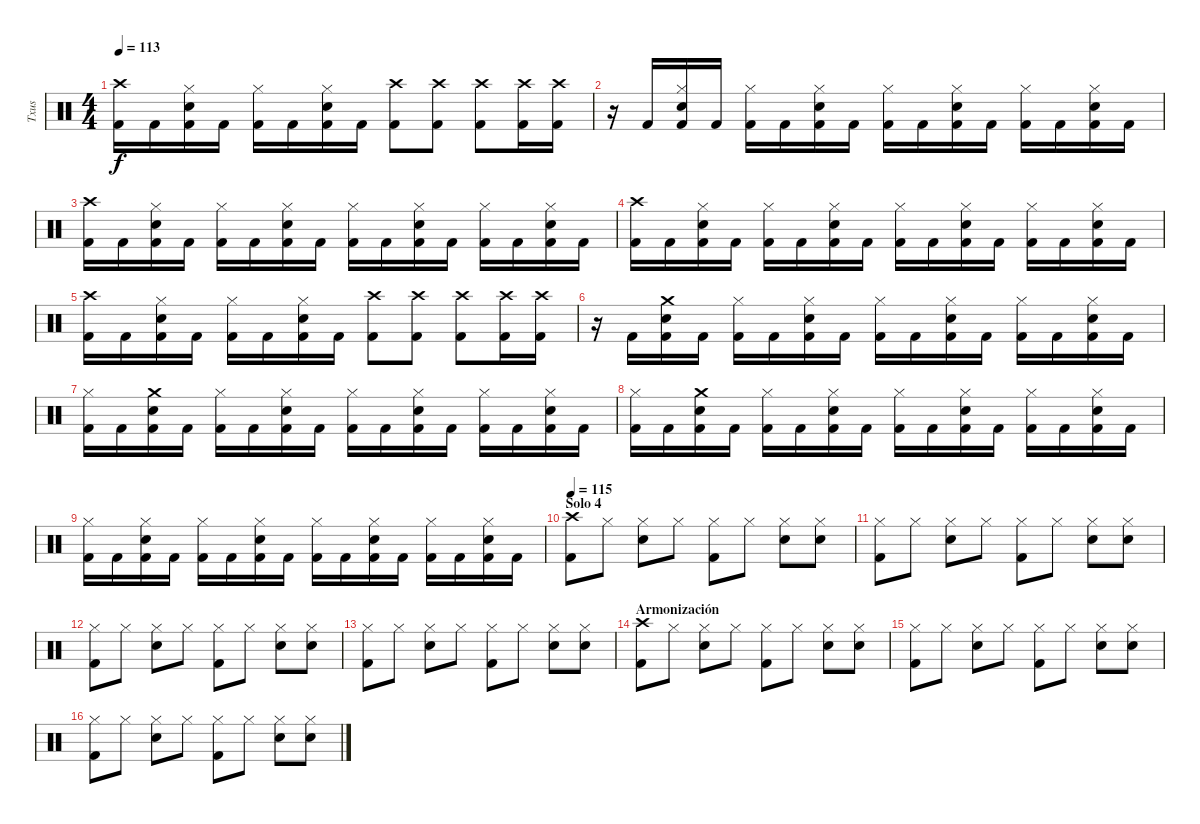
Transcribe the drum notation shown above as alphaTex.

\track ("Txus" "Txus") {instrument percussion}
\staff {score}
\articulation defaults
\ts (4 4)
\tempo 113
\clef neutral
\ks c
("Kick (hit) 2" "Crash high (hit)").16{dy f} "Kick (hit) 2".16 ("Kick (hit) 2" "Hi-Hat (closed)" "Electric Snare (hit)").16 "Kick (hit) 2".16 ("Kick (hit) 2" "Hi-Hat (closed)").16 "Kick (hit) 2".16 ("Kick (hit) 2" "Hi-Hat (closed)" "Electric Snare (hit)").16 "Kick (hit) 2".16 ("Kick (hit) 2" "Crash high (hit)").8 ("Kick (hit) 2" "Crash high (hit)").8 ("Kick (hit) 2" "Crash high (hit)").8 ("Kick (hit) 2" "Crash high (hit)").16 ("Kick (hit) 2" "Crash high (hit)").16 |
r.16 "Kick (hit) 2".16 ("Kick (hit) 2" "Hi-Hat (closed)" "Electric Snare (hit)").16 "Kick (hit) 2".16 ("Kick (hit) 2" "Hi-Hat (closed)").16 "Kick (hit) 2".16 ("Kick (hit) 2" "Hi-Hat (closed)" "Electric Snare (hit)").16 "Kick (hit) 2".16 ("Kick (hit) 2" "Hi-Hat (closed)").16 "Kick (hit) 2".16 ("Kick (hit) 2" "Hi-Hat (closed)" "Electric Snare (hit)").16 "Kick (hit) 2".16 ("Kick (hit) 2" "Hi-Hat (closed)").16 "Kick (hit) 2".16 ("Kick (hit) 2" "Hi-Hat (closed)" "Electric Snare (hit)").16 "Kick (hit) 2".16 |
("Kick (hit) 2" "Crash high (hit)").16 "Kick (hit) 2".16 ("Kick (hit) 2" "Hi-Hat (closed)" "Electric Snare (hit)").16 "Kick (hit) 2".16 ("Kick (hit) 2" "Hi-Hat (closed)").16 "Kick (hit) 2".16 ("Kick (hit) 2" "Hi-Hat (closed)" "Electric Snare (hit)").16 "Kick (hit) 2".16 ("Kick (hit) 2" "Hi-Hat (closed)").16 "Kick (hit) 2".16 ("Kick (hit) 2" "Hi-Hat (closed)" "Electric Snare (hit)").16 "Kick (hit) 2".16 ("Kick (hit) 2" "Hi-Hat (closed)").16 "Kick (hit) 2".16 ("Kick (hit) 2" "Hi-Hat (closed)" "Electric Snare (hit)").16 "Kick (hit) 2".16 |
("Kick (hit) 2" "Crash high (hit)").16 "Kick (hit) 2".16 ("Kick (hit) 2" "Hi-Hat (closed)" "Electric Snare (hit)").16 "Kick (hit) 2".16 ("Kick (hit) 2" "Hi-Hat (closed)").16 "Kick (hit) 2".16 ("Kick (hit) 2" "Hi-Hat (closed)" "Electric Snare (hit)").16 "Kick (hit) 2".16 ("Kick (hit) 2" "Hi-Hat (closed)").16 "Kick (hit) 2".16 ("Kick (hit) 2" "Hi-Hat (closed)" "Electric Snare (hit)").16 "Kick (hit) 2".16 ("Kick (hit) 2" "Hi-Hat (closed)").16 "Kick (hit) 2".16 ("Kick (hit) 2" "Hi-Hat (closed)" "Electric Snare (hit)").16 "Kick (hit) 2".16 |
("Kick (hit) 2" "Crash high (hit)").16 "Kick (hit) 2".16 ("Kick (hit) 2" "Hi-Hat (closed)" "Electric Snare (hit)").16 "Kick (hit) 2".16 ("Kick (hit) 2" "Hi-Hat (closed)").16 "Kick (hit) 2".16 ("Kick (hit) 2" "Hi-Hat (closed)" "Electric Snare (hit)").16 "Kick (hit) 2".16 ("Kick (hit) 2" "Crash high (hit)").8 ("Kick (hit) 2" "Crash high (hit)").8 ("Kick (hit) 2" "Crash high (hit)").8 ("Kick (hit) 2" "Crash high (hit)").16 ("Kick (hit) 2" "Crash high (hit)").16 |
r.16 "Kick (hit) 2".16 ("Kick (hit) 2" "Crash medium (hit)" "Electric Snare (hit)").16 "Kick (hit) 2".16 ("Kick (hit) 2" "Hi-Hat (closed)").16 "Kick (hit) 2".16 ("Kick (hit) 2" "Hi-Hat (closed)" "Electric Snare (hit)").16 "Kick (hit) 2".16 ("Kick (hit) 2" "Hi-Hat (closed)").16 "Kick (hit) 2".16 ("Kick (hit) 2" "Hi-Hat (closed)" "Electric Snare (hit)").16 "Kick (hit) 2".16 ("Kick (hit) 2" "Hi-Hat (closed)").16 "Kick (hit) 2".16 ("Kick (hit) 2" "Hi-Hat (closed)" "Electric Snare (hit)").16 "Kick (hit) 2".16 |
("Kick (hit) 2" "Hi-Hat (closed)").16 "Kick (hit) 2".16 ("Kick (hit) 2" "Crash medium (hit)" "Electric Snare (hit)").16 "Kick (hit) 2".16 ("Kick (hit) 2" "Hi-Hat (closed)").16 "Kick (hit) 2".16 ("Kick (hit) 2" "Hi-Hat (closed)" "Electric Snare (hit)").16 "Kick (hit) 2".16 ("Kick (hit) 2" "Hi-Hat (closed)").16 "Kick (hit) 2".16 ("Kick (hit) 2" "Hi-Hat (closed)" "Electric Snare (hit)").16 "Kick (hit) 2".16 ("Kick (hit) 2" "Hi-Hat (closed)").16 "Kick (hit) 2".16 ("Kick (hit) 2" "Hi-Hat (closed)" "Electric Snare (hit)").16 "Kick (hit) 2".16 |
("Kick (hit) 2" "Hi-Hat (closed)").16 "Kick (hit) 2".16 ("Kick (hit) 2" "Crash medium (hit)" "Electric Snare (hit)").16 "Kick (hit) 2".16 ("Kick (hit) 2" "Hi-Hat (closed)").16 "Kick (hit) 2".16 ("Kick (hit) 2" "Hi-Hat (closed)" "Electric Snare (hit)").16 "Kick (hit) 2".16 ("Kick (hit) 2" "Hi-Hat (closed)").16 "Kick (hit) 2".16 ("Kick (hit) 2" "Hi-Hat (closed)" "Electric Snare (hit)").16 "Kick (hit) 2".16 ("Kick (hit) 2" "Hi-Hat (closed)").16 "Kick (hit) 2".16 ("Kick (hit) 2" "Hi-Hat (closed)" "Electric Snare (hit)").16 "Kick (hit) 2".16 |
("Kick (hit) 2" "Hi-Hat (closed)").16 "Kick (hit) 2".16 ("Kick (hit) 2" "Hi-Hat (closed)" "Electric Snare (hit)").16 "Kick (hit) 2".16 ("Kick (hit) 2" "Hi-Hat (closed)").16 "Kick (hit) 2".16 ("Kick (hit) 2" "Hi-Hat (closed)" "Electric Snare (hit)").16 "Kick (hit) 2".16 ("Kick (hit) 2" "Hi-Hat (closed)").16 "Kick (hit) 2".16 ("Kick (hit) 2" "Hi-Hat (closed)" "Electric Snare (hit)").16 "Kick (hit) 2".16 ("Kick (hit) 2" "Hi-Hat (closed)").16 "Kick (hit) 2".16 ("Kick (hit) 2" "Hi-Hat (closed)" "Electric Snare (hit)").16 "Kick (hit) 2".16 |
\section ("" "Solo 4")
\tempo 115
("Kick (hit) 2" "Crash high (hit)").8 "Hi-Hat (closed)".8 ("Electric Snare (hit)" "Hi-Hat (closed)").8 "Hi-Hat (closed)".8 ("Kick (hit) 2" "Hi-Hat (closed)").8 "Hi-Hat (closed)".8 ("Electric Snare (hit)" "Hi-Hat (closed)").8 ("Electric Snare (hit)" "Hi-Hat (closed)").8 |
("Kick (hit) 2" "Hi-Hat (closed)").8 "Hi-Hat (closed)".8 ("Electric Snare (hit)" "Hi-Hat (closed)").8 "Hi-Hat (closed)".8 ("Kick (hit) 2" "Hi-Hat (closed)").8 "Hi-Hat (closed)".8 ("Electric Snare (hit)" "Hi-Hat (closed)").8 ("Electric Snare (hit)" "Hi-Hat (closed)").8 |
("Kick (hit) 2" "Hi-Hat (closed)").8 "Hi-Hat (closed)".8 ("Electric Snare (hit)" "Hi-Hat (closed)").8 "Hi-Hat (closed)".8 ("Kick (hit) 2" "Hi-Hat (closed)").8 "Hi-Hat (closed)".8 ("Electric Snare (hit)" "Hi-Hat (closed)").8 ("Electric Snare (hit)" "Hi-Hat (closed)").8 |
("Kick (hit) 2" "Hi-Hat (closed)").8 "Hi-Hat (closed)".8 ("Electric Snare (hit)" "Hi-Hat (closed)").8 "Hi-Hat (closed)".8 ("Kick (hit) 2" "Hi-Hat (closed)").8 "Hi-Hat (closed)".8 ("Electric Snare (hit)" "Hi-Hat (closed)").8 ("Electric Snare (hit)" "Hi-Hat (closed)").8 |
\section ("" "Armonización")
("Kick (hit) 2" "Crash high (hit)").8 "Hi-Hat (closed)".8 ("Electric Snare (hit)" "Hi-Hat (closed)").8 "Hi-Hat (closed)".8 ("Kick (hit) 2" "Hi-Hat (closed)").8 "Hi-Hat (closed)".8 ("Electric Snare (hit)" "Hi-Hat (closed)").8 ("Electric Snare (hit)" "Hi-Hat (closed)").8 |
("Kick (hit) 2" "Hi-Hat (closed)").8 "Hi-Hat (closed)".8 ("Electric Snare (hit)" "Hi-Hat (closed)").8 "Hi-Hat (closed)".8 ("Kick (hit) 2" "Hi-Hat (closed)").8 "Hi-Hat (closed)".8 ("Electric Snare (hit)" "Hi-Hat (closed)").8 ("Electric Snare (hit)" "Hi-Hat (closed)").8 |
("Kick (hit) 2" "Hi-Hat (closed)").8 "Hi-Hat (closed)".8 ("Electric Snare (hit)" "Hi-Hat (closed)").8 "Hi-Hat (closed)".8 ("Kick (hit) 2" "Hi-Hat (closed)").8 "Hi-Hat (closed)".8 ("Electric Snare (hit)" "Hi-Hat (closed)").8 ("Electric Snare (hit)" "Hi-Hat (closed)").8
